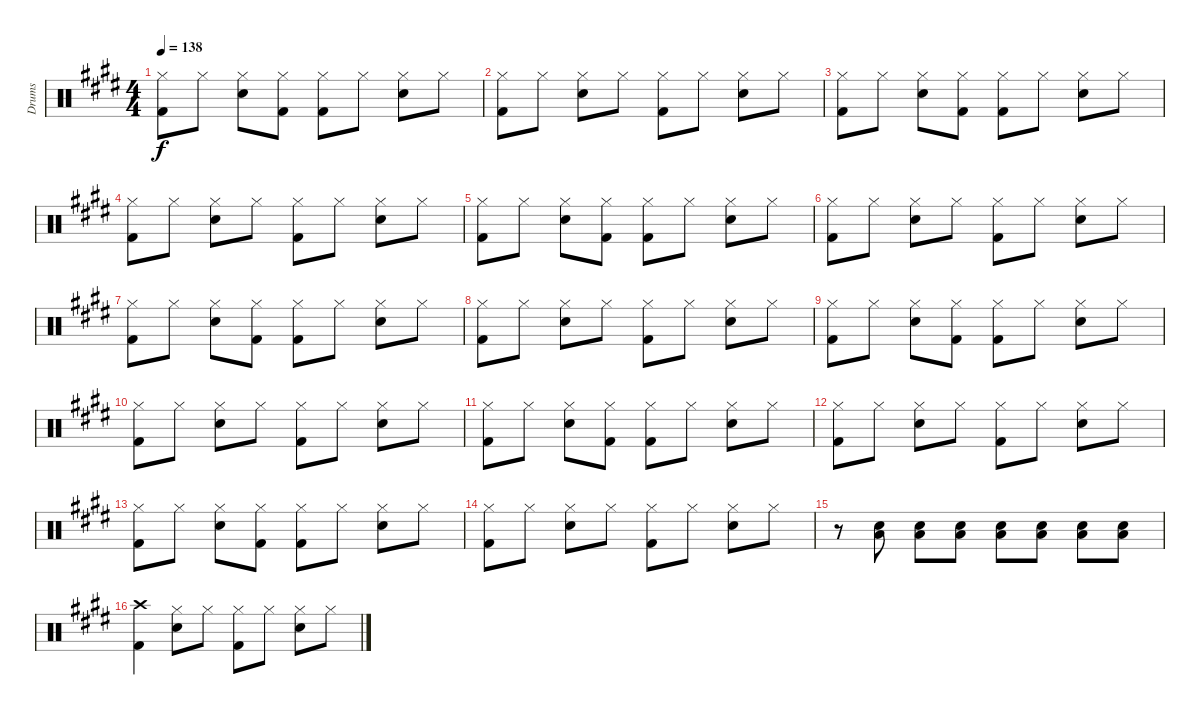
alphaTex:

\track ("Drums" "Drums") {instrument percussion}
\staff {score}
\articulation defaults
\ts (4 4)
\tempo 138
\clef neutral
\ks e
("Hi-Hat (closed)" "Kick (hit) 2").8{dy f} "Hi-Hat (closed)".8 ("Hi-Hat (closed)" "Snare (hit) 2").8 ("Hi-Hat (closed)" "Kick (hit) 2").8 ("Hi-Hat (closed)" "Kick (hit) 2").8 "Hi-Hat (closed)".8 ("Hi-Hat (closed)" "Snare (hit) 2").8 "Hi-Hat (closed)".8 |
("Hi-Hat (closed)" "Kick (hit) 2").8 "Hi-Hat (closed)".8 ("Hi-Hat (closed)" "Snare (hit) 2").8 "Hi-Hat (closed)".8 ("Hi-Hat (closed)" "Kick (hit) 2").8 "Hi-Hat (closed)".8 ("Hi-Hat (closed)" "Snare (hit) 2").8 "Hi-Hat (closed)".8 |
("Hi-Hat (closed)" "Kick (hit) 2").8 "Hi-Hat (closed)".8 ("Hi-Hat (closed)" "Snare (hit) 2").8 ("Hi-Hat (closed)" "Kick (hit) 2").8 ("Hi-Hat (closed)" "Kick (hit) 2").8 "Hi-Hat (closed)".8 ("Hi-Hat (closed)" "Snare (hit) 2").8 "Hi-Hat (closed)".8 |
("Hi-Hat (closed)" "Kick (hit) 2").8 "Hi-Hat (closed)".8 ("Hi-Hat (closed)" "Snare (hit) 2").8 "Hi-Hat (closed)".8 ("Hi-Hat (closed)" "Kick (hit) 2").8 "Hi-Hat (closed)".8 ("Hi-Hat (closed)" "Snare (hit) 2").8 "Hi-Hat (closed)".8 |
("Hi-Hat (closed)" "Kick (hit) 2").8 "Hi-Hat (closed)".8 ("Hi-Hat (closed)" "Snare (hit) 2").8 ("Hi-Hat (closed)" "Kick (hit) 2").8 ("Hi-Hat (closed)" "Kick (hit) 2").8 "Hi-Hat (closed)".8 ("Hi-Hat (closed)" "Snare (hit) 2").8 "Hi-Hat (closed)".8 |
("Hi-Hat (closed)" "Kick (hit) 2").8 "Hi-Hat (closed)".8 ("Hi-Hat (closed)" "Snare (hit) 2").8 "Hi-Hat (closed)".8 ("Hi-Hat (closed)" "Kick (hit) 2").8 "Hi-Hat (closed)".8 ("Hi-Hat (closed)" "Snare (hit) 2").8 "Hi-Hat (closed)".8 |
("Hi-Hat (closed)" "Kick (hit) 2").8 "Hi-Hat (closed)".8 ("Hi-Hat (closed)" "Snare (hit) 2").8 ("Hi-Hat (closed)" "Kick (hit) 2").8 ("Hi-Hat (closed)" "Kick (hit) 2").8 "Hi-Hat (closed)".8 ("Hi-Hat (closed)" "Snare (hit) 2").8 "Hi-Hat (closed)".8 |
("Hi-Hat (closed)" "Kick (hit) 2").8 "Hi-Hat (closed)".8 ("Hi-Hat (closed)" "Snare (hit) 2").8 "Hi-Hat (closed)".8 ("Hi-Hat (closed)" "Kick (hit) 2").8 "Hi-Hat (closed)".8 ("Hi-Hat (closed)" "Snare (hit) 2").8 "Hi-Hat (closed)".8 |
("Hi-Hat (closed)" "Kick (hit) 2").8 "Hi-Hat (closed)".8 ("Hi-Hat (closed)" "Snare (hit) 2").8 ("Hi-Hat (closed)" "Kick (hit) 2").8 ("Hi-Hat (closed)" "Kick (hit) 2").8 "Hi-Hat (closed)".8 ("Hi-Hat (closed)" "Snare (hit) 2").8 "Hi-Hat (closed)".8 |
("Hi-Hat (closed)" "Kick (hit) 2").8 "Hi-Hat (closed)".8 ("Hi-Hat (closed)" "Snare (hit) 2").8 "Hi-Hat (closed)".8 ("Hi-Hat (closed)" "Kick (hit) 2").8 "Hi-Hat (closed)".8 ("Hi-Hat (closed)" "Snare (hit) 2").8 "Hi-Hat (closed)".8 |
("Hi-Hat (closed)" "Kick (hit) 2").8 "Hi-Hat (closed)".8 ("Hi-Hat (closed)" "Snare (hit) 2").8 ("Hi-Hat (closed)" "Kick (hit) 2").8 ("Hi-Hat (closed)" "Kick (hit) 2").8 "Hi-Hat (closed)".8 ("Hi-Hat (closed)" "Snare (hit) 2").8 "Hi-Hat (closed)".8 |
("Hi-Hat (closed)" "Kick (hit) 2").8 "Hi-Hat (closed)".8 ("Hi-Hat (closed)" "Snare (hit) 2").8 "Hi-Hat (closed)".8 ("Hi-Hat (closed)" "Kick (hit) 2").8 "Hi-Hat (closed)".8 ("Hi-Hat (closed)" "Snare (hit) 2").8 "Hi-Hat (closed)".8 |
("Hi-Hat (closed)" "Kick (hit) 2").8 "Hi-Hat (closed)".8 ("Hi-Hat (closed)" "Snare (hit) 2").8 ("Hi-Hat (closed)" "Kick (hit) 2").8 ("Hi-Hat (closed)" "Kick (hit) 2").8 "Hi-Hat (closed)".8 ("Hi-Hat (closed)" "Snare (hit) 2").8 "Hi-Hat (closed)".8 |
("Hi-Hat (closed)" "Kick (hit) 2").8 "Hi-Hat (closed)".8 ("Hi-Hat (closed)" "Snare (hit) 2").8 "Hi-Hat (closed)".8 ("Hi-Hat (closed)" "Kick (hit) 2").8 "Hi-Hat (closed)".8 ("Hi-Hat (closed)" "Snare (hit) 2").8 "Hi-Hat (closed)".8 |
r.8 ("Snare (hit) 2" "Low Floor Tom (hit)").8 ("Snare (hit) 2" "Low Floor Tom (hit)").8 ("Snare (hit) 2" "Low Floor Tom (hit)").8 ("Snare (hit) 2" "Low Floor Tom (hit)").8 ("Snare (hit) 2" "Low Floor Tom (hit)").8 ("Snare (hit) 2" "Low Floor Tom (hit)").8 ("Snare (hit) 2" "Low Floor Tom (hit)").8 |
("Crash high (hit)" "Kick (hit) 2").4 ("Hi-Hat (closed)" "Snare (hit) 2").8 "Hi-Hat (closed)".8 ("Hi-Hat (closed)" "Kick (hit) 2").8 "Hi-Hat (closed)".8 ("Hi-Hat (closed)" "Snare (hit) 2").8 "Hi-Hat (closed)".8
